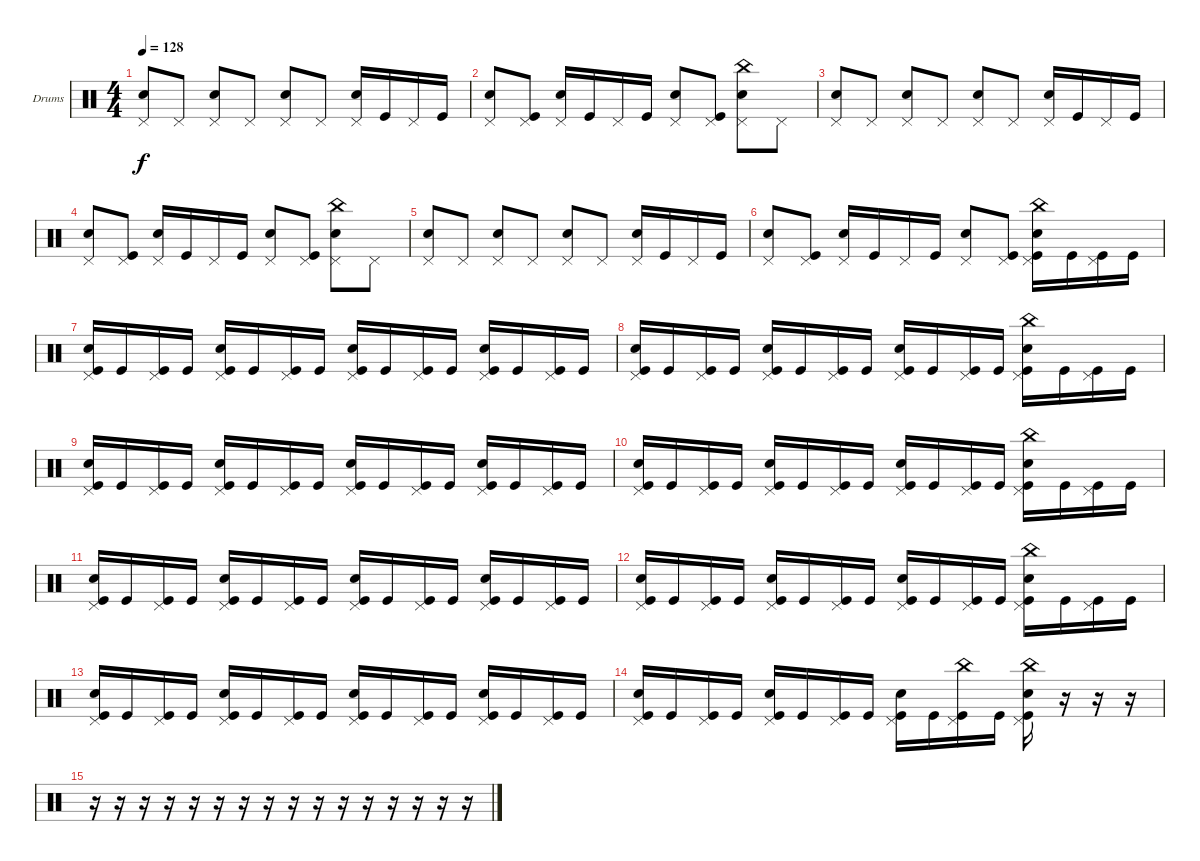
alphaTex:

\defaultSystemsLayout 4
\bracketExtendMode groupsimilarinstruments
\firstSystemTrackNameOrientation horizontal
\otherSystemsTrackNameOrientation horizontal
\track ("Drumkit" "Drums") {instrument percussion}
\staff {score}
\articulation defaults
\ts (4 4)
\tempo 128
\clef neutral
\ks c
("Pedal Hi-Hat (hit)" "Snare (hit) 2").8{dy f} "Pedal Hi-Hat (hit)".8 ("Pedal Hi-Hat (hit)" "Snare (hit) 2").8 "Pedal Hi-Hat (hit)".8 ("Pedal Hi-Hat (hit)" "Snare (hit) 2").8 "Pedal Hi-Hat (hit)".8 ("Pedal Hi-Hat (hit)" "Snare (hit) 2").16 "Kick (hit)".16 "Pedal Hi-Hat (hit)".16 "Kick (hit)".16 |
("Snare (hit) 2" "Pedal Hi-Hat (hit)").8 ("Kick (hit)" "Pedal Hi-Hat (hit)").8 ("Snare (hit) 2" "Pedal Hi-Hat (hit)").16 "Kick (hit)".16 "Pedal Hi-Hat (hit)".16 "Kick (hit)".16 ("Snare (hit) 2" "Pedal Hi-Hat (hit)").8 ("Pedal Hi-Hat (hit)" "Kick (hit)").8 ("Pedal Hi-Hat (hit)" "Snare (hit) 2" "China (hit)").8 "Pedal Hi-Hat (hit)".8 |
("Pedal Hi-Hat (hit)" "Snare (hit) 2").8 "Pedal Hi-Hat (hit)".8 ("Pedal Hi-Hat (hit)" "Snare (hit) 2").8 "Pedal Hi-Hat (hit)".8 ("Pedal Hi-Hat (hit)" "Snare (hit) 2").8 "Pedal Hi-Hat (hit)".8 ("Pedal Hi-Hat (hit)" "Snare (hit) 2").16 "Kick (hit)".16 "Pedal Hi-Hat (hit)".16 "Kick (hit)".16 |
("Snare (hit) 2" "Pedal Hi-Hat (hit)").8 ("Kick (hit)" "Pedal Hi-Hat (hit)").8 ("Snare (hit) 2" "Pedal Hi-Hat (hit)").16 "Kick (hit)".16 "Pedal Hi-Hat (hit)".16 "Kick (hit)".16 ("Snare (hit) 2" "Pedal Hi-Hat (hit)").8 ("Pedal Hi-Hat (hit)" "Kick (hit)").8 ("Pedal Hi-Hat (hit)" "Snare (hit) 2" "China (hit)").8 "Pedal Hi-Hat (hit)".8 |
("Pedal Hi-Hat (hit)" "Snare (hit) 2").8 "Pedal Hi-Hat (hit)".8 ("Pedal Hi-Hat (hit)" "Snare (hit) 2").8 "Pedal Hi-Hat (hit)".8 ("Pedal Hi-Hat (hit)" "Snare (hit) 2").8 "Pedal Hi-Hat (hit)".8 ("Pedal Hi-Hat (hit)" "Snare (hit) 2").16 "Kick (hit)".16 "Pedal Hi-Hat (hit)".16 "Kick (hit)".16 |
("Snare (hit) 2" "Pedal Hi-Hat (hit)").8 ("Kick (hit)" "Pedal Hi-Hat (hit)").8 ("Snare (hit) 2" "Pedal Hi-Hat (hit)").16 "Kick (hit)".16 "Pedal Hi-Hat (hit)".16 "Kick (hit)".16 ("Snare (hit) 2" "Pedal Hi-Hat (hit)").8 ("Pedal Hi-Hat (hit)" "Kick (hit)").8 ("Pedal Hi-Hat (hit)" "Snare (hit) 2" "China (hit)" "Kick (hit)").16 "Kick (hit)".16 ("Pedal Hi-Hat (hit)" "Kick (hit)").16 "Kick (hit)".16 |
("Kick (hit)" "Pedal Hi-Hat (hit)" "Snare (hit) 2").16 "Kick (hit)".16 ("Kick (hit)" "Pedal Hi-Hat (hit)").16 "Kick (hit)".16 ("Kick (hit)" "Pedal Hi-Hat (hit)" "Snare (hit) 2").16 "Kick (hit)".16 ("Kick (hit)" "Pedal Hi-Hat (hit)").16 "Kick (hit)".16 ("Kick (hit)" "Pedal Hi-Hat (hit)" "Snare (hit) 2").16 "Kick (hit)".16 ("Kick (hit)" "Pedal Hi-Hat (hit)").16 "Kick (hit)".16 ("Kick (hit)" "Pedal Hi-Hat (hit)" "Snare (hit) 2").16 "Kick (hit)".16 ("Kick (hit)" "Pedal Hi-Hat (hit)").16 "Kick (hit)".16 |
("Kick (hit)" "Pedal Hi-Hat (hit)" "Snare (hit) 2").16 "Kick (hit)".16 ("Kick (hit)" "Pedal Hi-Hat (hit)").16 "Kick (hit)".16 ("Kick (hit)" "Pedal Hi-Hat (hit)" "Snare (hit) 2").16 "Kick (hit)".16 ("Kick (hit)" "Pedal Hi-Hat (hit)").16 "Kick (hit)".16 ("Kick (hit)" "Pedal Hi-Hat (hit)" "Snare (hit) 2").16 "Kick (hit)".16 ("Kick (hit)" "Pedal Hi-Hat (hit)").16 "Kick (hit)".16 ("Kick (hit)" "Pedal Hi-Hat (hit)" "Snare (hit) 2" "China (hit)").16 "Kick (hit)".16 ("Kick (hit)" "Pedal Hi-Hat (hit)").16 "Kick (hit)".16 |
("Kick (hit)" "Pedal Hi-Hat (hit)" "Snare (hit) 2").16 "Kick (hit)".16 ("Kick (hit)" "Pedal Hi-Hat (hit)").16 "Kick (hit)".16 ("Kick (hit)" "Pedal Hi-Hat (hit)" "Snare (hit) 2").16 "Kick (hit)".16 ("Kick (hit)" "Pedal Hi-Hat (hit)").16 "Kick (hit)".16 ("Kick (hit)" "Pedal Hi-Hat (hit)" "Snare (hit) 2").16 "Kick (hit)".16 ("Kick (hit)" "Pedal Hi-Hat (hit)").16 "Kick (hit)".16 ("Kick (hit)" "Pedal Hi-Hat (hit)" "Snare (hit) 2").16 "Kick (hit)".16 ("Kick (hit)" "Pedal Hi-Hat (hit)").16 "Kick (hit)".16 |
("Kick (hit)" "Pedal Hi-Hat (hit)" "Snare (hit) 2").16 "Kick (hit)".16 ("Kick (hit)" "Pedal Hi-Hat (hit)").16 "Kick (hit)".16 ("Kick (hit)" "Pedal Hi-Hat (hit)" "Snare (hit) 2").16 "Kick (hit)".16 ("Kick (hit)" "Pedal Hi-Hat (hit)").16 "Kick (hit)".16 ("Kick (hit)" "Pedal Hi-Hat (hit)" "Snare (hit) 2").16 "Kick (hit)".16 ("Kick (hit)" "Pedal Hi-Hat (hit)").16 "Kick (hit)".16 ("Kick (hit)" "Pedal Hi-Hat (hit)" "Snare (hit) 2" "China (hit)").16 "Kick (hit)".16 ("Kick (hit)" "Pedal Hi-Hat (hit)").16 "Kick (hit)".16 |
("Kick (hit)" "Pedal Hi-Hat (hit)" "Snare (hit) 2").16 "Kick (hit)".16 ("Kick (hit)" "Pedal Hi-Hat (hit)").16 "Kick (hit)".16 ("Kick (hit)" "Pedal Hi-Hat (hit)" "Snare (hit) 2").16 "Kick (hit)".16 ("Kick (hit)" "Pedal Hi-Hat (hit)").16 "Kick (hit)".16 ("Kick (hit)" "Pedal Hi-Hat (hit)" "Snare (hit) 2").16 "Kick (hit)".16 ("Kick (hit)" "Pedal Hi-Hat (hit)").16 "Kick (hit)".16 ("Kick (hit)" "Pedal Hi-Hat (hit)" "Snare (hit) 2").16 "Kick (hit)".16 ("Kick (hit)" "Pedal Hi-Hat (hit)").16 "Kick (hit)".16 |
("Kick (hit)" "Pedal Hi-Hat (hit)" "Snare (hit) 2").16 "Kick (hit)".16 ("Kick (hit)" "Pedal Hi-Hat (hit)").16 "Kick (hit)".16 ("Kick (hit)" "Pedal Hi-Hat (hit)" "Snare (hit) 2").16 "Kick (hit)".16 ("Kick (hit)" "Pedal Hi-Hat (hit)").16 "Kick (hit)".16 ("Kick (hit)" "Pedal Hi-Hat (hit)" "Snare (hit) 2").16 "Kick (hit)".16 ("Kick (hit)" "Pedal Hi-Hat (hit)").16 "Kick (hit)".16 ("Kick (hit)" "Pedal Hi-Hat (hit)" "Snare (hit) 2" "China (hit)").16 "Kick (hit)".16 ("Kick (hit)" "Pedal Hi-Hat (hit)").16 "Kick (hit)".16 |
("Kick (hit)" "Pedal Hi-Hat (hit)" "Snare (hit) 2").16 "Kick (hit)".16 ("Kick (hit)" "Pedal Hi-Hat (hit)").16 "Kick (hit)".16 ("Kick (hit)" "Pedal Hi-Hat (hit)" "Snare (hit) 2").16 "Kick (hit)".16 ("Kick (hit)" "Pedal Hi-Hat (hit)").16 "Kick (hit)".16 ("Kick (hit)" "Pedal Hi-Hat (hit)" "Snare (hit) 2").16 "Kick (hit)".16 ("Kick (hit)" "Pedal Hi-Hat (hit)").16 "Kick (hit)".16 ("Kick (hit)" "Pedal Hi-Hat (hit)" "Snare (hit) 2").16 "Kick (hit)".16 ("Kick (hit)" "Pedal Hi-Hat (hit)").16 "Kick (hit)".16 |
("Kick (hit)" "Pedal Hi-Hat (hit)" "Snare (hit) 2").16 "Kick (hit)".16 ("Kick (hit)" "Pedal Hi-Hat (hit)").16 "Kick (hit)".16 ("Kick (hit)" "Pedal Hi-Hat (hit)" "Snare (hit) 2").16 "Kick (hit)".16 ("Kick (hit)" "Pedal Hi-Hat (hit)").16 "Kick (hit)".16 ("Kick (hit)" "Pedal Hi-Hat (hit)" "Snare (hit) 2").16 "Kick (hit)".16 ("Kick (hit)" "Pedal Hi-Hat (hit)" "China (hit)").16 "Kick (hit)".16 ("Kick (hit)" "Pedal Hi-Hat (hit)" "Snare (hit) 2" "China (hit)").16 r.16 r.16 r.16 |
r.16 r.16 r.16 r.16 r.16 r.16 r.16 r.16 r.16 r.16 r.16 r.16 r.16 r.16 r.16 r.16
